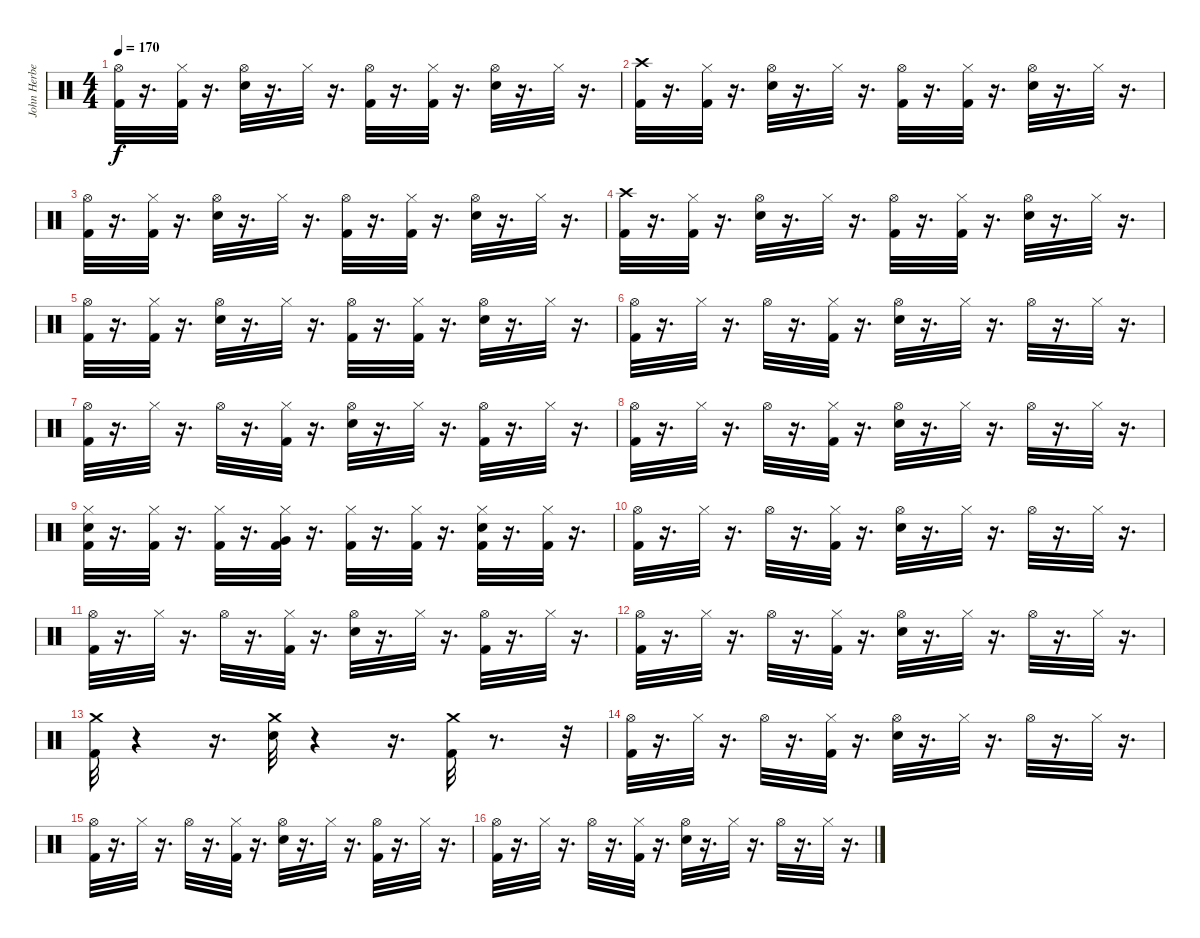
\track ("John Herbert" "John Herbe") {instrument percussion}
\staff {score}
\articulation defaults
\ts (4 4)
\tempo 170
\clef neutral
\ks c
("Hi-Hat (open)" "Kick (hit) 2").32{dy f} r.16{d} ("Hi-Hat (closed)" "Kick (hit) 2").32 r.16{d} ("Hi-Hat (open)" "Snare (hit) 2").32 r.16{d} "Hi-Hat (closed)".32 r.16{d} ("Hi-Hat (open)" "Kick (hit) 2").32 r.16{d} ("Hi-Hat (closed)" "Kick (hit) 2").32 r.16{d} ("Hi-Hat (open)" "Snare (hit) 2").32 r.16{d} "Hi-Hat (closed)".32 r.16{d} |
("Crash high (hit)" "Kick (hit) 2").32 r.16{d} ("Hi-Hat (closed)" "Kick (hit) 2").32 r.16{d} ("Hi-Hat (open)" "Snare (hit) 2").32 r.16{d} "Hi-Hat (closed)".32 r.16{d} ("Hi-Hat (open)" "Kick (hit) 2").32 r.16{d} ("Hi-Hat (closed)" "Kick (hit) 2").32 r.16{d} ("Hi-Hat (open)" "Snare (hit) 2").32 r.16{d} "Hi-Hat (closed)".32 r.16{d} |
("Hi-Hat (open)" "Kick (hit) 2").32 r.16{d} ("Hi-Hat (closed)" "Kick (hit) 2").32 r.16{d} ("Hi-Hat (open)" "Snare (hit) 2").32 r.16{d} "Hi-Hat (closed)".32 r.16{d} ("Hi-Hat (open)" "Kick (hit) 2").32 r.16{d} ("Hi-Hat (closed)" "Kick (hit) 2").32 r.16{d} ("Hi-Hat (open)" "Snare (hit) 2").32 r.16{d} "Hi-Hat (closed)".32 r.16{d} |
("Crash high (hit)" "Kick (hit) 2").32 r.16{d} ("Hi-Hat (closed)" "Kick (hit) 2").32 r.16{d} ("Hi-Hat (open)" "Snare (hit) 2").32 r.16{d} "Hi-Hat (closed)".32 r.16{d} ("Hi-Hat (open)" "Kick (hit) 2").32 r.16{d} ("Hi-Hat (closed)" "Kick (hit) 2").32 r.16{d} ("Hi-Hat (open)" "Snare (hit) 2").32 r.16{d} "Hi-Hat (closed)".32 r.16{d} |
("Hi-Hat (open)" "Kick (hit) 2").32 r.16{d} ("Hi-Hat (closed)" "Kick (hit) 2").32 r.16{d} ("Hi-Hat (open)" "Snare (hit) 2").32 r.16{d} "Hi-Hat (closed)".32 r.16{d} ("Hi-Hat (open)" "Kick (hit) 2").32 r.16{d} ("Hi-Hat (closed)" "Kick (hit) 2").32 r.16{d} ("Hi-Hat (open)" "Snare (hit) 2").32 r.16{d} "Hi-Hat (closed)".32 r.16{d} |
("Kick (hit) 2" "Hi-Hat (open)").32 r.16{d} "Hi-Hat (closed)".32 r.16{d} "Hi-Hat (open)".32 r.16{d} ("Kick (hit) 2" "Hi-Hat (closed)").32 r.16{d} ("Snare (hit) 2" "Hi-Hat (open)").32 r.16{d} "Hi-Hat (closed)".32 r.16{d} "Hi-Hat (open)".32 r.16{d} "Hi-Hat (closed)".32 r.16{d} |
("Hi-Hat (open)" "Kick (hit) 2").32 r.16{d} "Hi-Hat (closed)".32 r.16{d} "Hi-Hat (open)".32 r.16{d} ("Hi-Hat (closed)" "Kick (hit) 2").32 r.16{d} ("Snare (hit) 2" "Hi-Hat (open)").32 r.16{d} "Hi-Hat (closed)".32 r.16{d} ("Kick (hit) 2" "Hi-Hat (open)").32 r.16{d} "Hi-Hat (closed)".32 r.16{d} |
("Kick (hit) 2" "Hi-Hat (open)").32 r.16{d} "Hi-Hat (closed)".32 r.16{d} "Hi-Hat (open)".32 r.16{d} ("Kick (hit) 2" "Hi-Hat (closed)").32 r.16{d} ("Snare (hit) 2" "Hi-Hat (open)").32 r.16{d} "Hi-Hat (closed)".32 r.16{d} "Hi-Hat (open)".32 r.16{d} "Hi-Hat (closed)".32 r.16{d} |
("Snare (hit) 2" "Hi-Hat (closed)" "Kick (hit) 2").32 r.16{d} ("Hi-Hat (closed)" "Kick (hit) 2").32 r.16{d} ("Hi-Hat (closed)" "Kick (hit) 2").32 r.16{d} ("Very Low Tom (hit)" "Hi-Hat (closed)" "Kick (hit) 2").32 r.16{d} ("Hi-Hat (closed)" "Kick (hit) 2").32 r.16{d} ("Hi-Hat (closed)" "Kick (hit) 2").32 r.16{d} ("Snare (hit) 2" "Hi-Hat (closed)" "Kick (hit) 2").32 r.16{d} ("Hi-Hat (closed)" "Kick (hit) 2").32 r.16{d} |
("Kick (hit) 2" "Hi-Hat (open)").32 r.16{d} "Hi-Hat (closed)".32 r.16{d} "Hi-Hat (open)".32 r.16{d} ("Kick (hit) 2" "Hi-Hat (closed)").32 r.16{d} ("Snare (hit) 2" "Hi-Hat (open)").32 r.16{d} "Hi-Hat (closed)".32 r.16{d} "Hi-Hat (open)".32 r.16{d} "Hi-Hat (closed)".32 r.16{d} |
("Hi-Hat (open)" "Kick (hit) 2").32 r.16{d} "Hi-Hat (closed)".32 r.16{d} "Hi-Hat (open)".32 r.16{d} ("Hi-Hat (closed)" "Kick (hit) 2").32 r.16{d} ("Snare (hit) 2" "Hi-Hat (open)").32 r.16{d} "Hi-Hat (closed)".32 r.16{d} ("Kick (hit) 2" "Hi-Hat (open)").32 r.16{d} "Hi-Hat (closed)".32 r.16{d} |
("Kick (hit) 2" "Hi-Hat (open)").32 r.16{d} "Hi-Hat (closed)".32 r.16{d} "Hi-Hat (open)".32 r.16{d} ("Kick (hit) 2" "Hi-Hat (closed)").32 r.16{d} ("Snare (hit) 2" "Hi-Hat (open)").32 r.16{d} "Hi-Hat (closed)".32 r.16{d} "Hi-Hat (open)".32 r.16{d} "Hi-Hat (closed)".32 r.16{d} |
("Kick (hit) 2" "Crash medium (hit)").32 r.4 r.16{d} ("Snare (hit) 2" "Crash medium (hit)").32 r.4 r.16{d} ("Kick (hit) 2" "Crash medium (hit)").32 r.8{d} r.32 |
("Kick (hit) 2" "Hi-Hat (open)").32 r.16{d} "Hi-Hat (closed)".32 r.16{d} "Hi-Hat (open)".32 r.16{d} ("Kick (hit) 2" "Hi-Hat (closed)").32 r.16{d} ("Snare (hit) 2" "Hi-Hat (open)").32 r.16{d} "Hi-Hat (closed)".32 r.16{d} "Hi-Hat (open)".32 r.16{d} "Hi-Hat (closed)".32 r.16{d} |
("Hi-Hat (open)" "Kick (hit) 2").32 r.16{d} "Hi-Hat (closed)".32 r.16{d} "Hi-Hat (open)".32 r.16{d} ("Hi-Hat (closed)" "Kick (hit) 2").32 r.16{d} ("Snare (hit) 2" "Hi-Hat (open)").32 r.16{d} "Hi-Hat (closed)".32 r.16{d} ("Kick (hit) 2" "Hi-Hat (open)").32 r.16{d} "Hi-Hat (closed)".32 r.16{d} |
("Kick (hit) 2" "Hi-Hat (open)").32 r.16{d} "Hi-Hat (closed)".32 r.16{d} "Hi-Hat (open)".32 r.16{d} ("Kick (hit) 2" "Hi-Hat (closed)").32 r.16{d} ("Snare (hit) 2" "Hi-Hat (open)").32 r.16{d} "Hi-Hat (closed)".32 r.16{d} "Hi-Hat (open)".32 r.16{d} "Hi-Hat (closed)".32 r.16{d}
